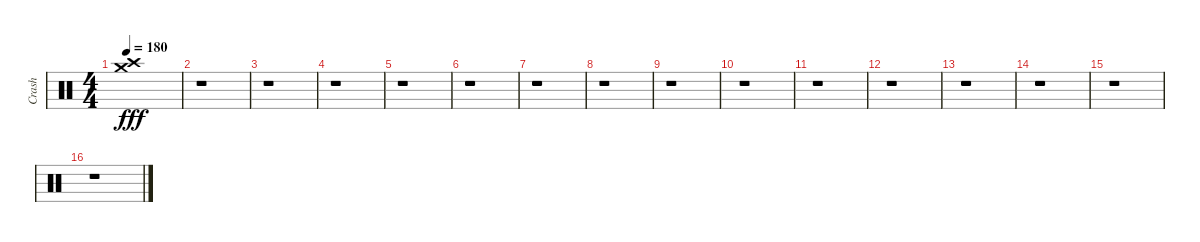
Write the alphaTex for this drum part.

\track ("Crash" "Crash") {instrument percussion}
\staff {score}
\articulation defaults
\ts (4 4)
\tempo 180
\clef neutral
\ks c
("Crash high (hit)" "Crash medium (hit)").1{dy fff} |
r.1 |
r.1 |
r.1 |
r.1 |
r.1 |
r.1 |
r.1 |
r.1 |
r.1 |
r.1 |
r.1 |
r.1 |
r.1 |
r.1 |
r.1
